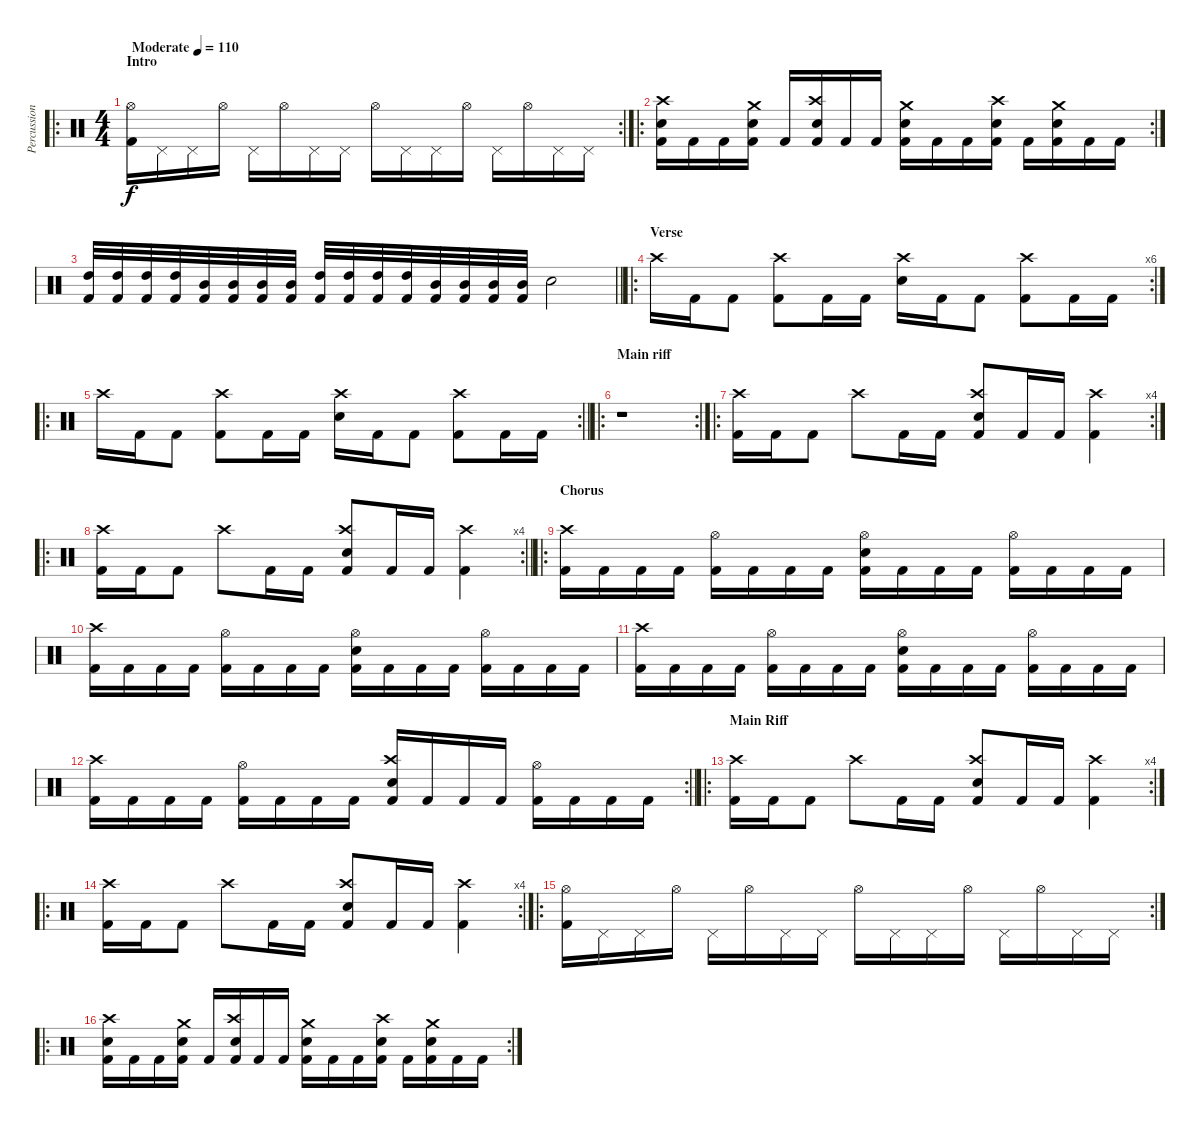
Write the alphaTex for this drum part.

\track ("Percussion" "Percussion") {instrument percussion}
\staff {score}
\articulation defaults
\ro
\rc 2
\ts (4 4)
\section ("" "Intro")
\tempo (110 "Moderate")
\clef neutral
\ks c
("Hi-Hat (open)" "Kick (hit) 2").16{dy f} "Pedal Hi-Hat (hit)".16 "Pedal Hi-Hat (hit)".16 "Hi-Hat (open)".16 "Pedal Hi-Hat (hit)".16 "Hi-Hat (open)".16 "Pedal Hi-Hat (hit)".16 "Pedal Hi-Hat (hit)".16 "Hi-Hat (open)".16 "Pedal Hi-Hat (hit)".16 "Pedal Hi-Hat (hit)".16 "Hi-Hat (open)".16 "Pedal Hi-Hat (hit)".16 "Hi-Hat (open)".16 "Pedal Hi-Hat (hit)".16 "Pedal Hi-Hat (hit)".16 |
\ro
\rc 2
("Crash high (hit)" "Electric Snare (hit)" "Kick (hit) 2").16 "Kick (hit) 2".16 "Kick (hit) 2".16 ("Crash medium (hit)" "Electric Snare (hit)" "Kick (hit) 2").16 "Kick (hit) 2".16 ("Crash high (hit)" "Electric Snare (hit)" "Kick (hit) 2").16 "Kick (hit) 2".16 "Kick (hit) 2".16 ("Crash medium (hit)" "Electric Snare (hit)" "Kick (hit) 2").16 "Kick (hit) 2".16 "Kick (hit) 2".16 ("Crash high (hit)" "Electric Snare (hit)" "Kick (hit) 2").16 "Kick (hit) 2".16 ("Crash medium (hit)" "Electric Snare (hit)" "Kick (hit) 2").16 "Kick (hit) 2".16 "Kick (hit) 2".16 |
\barLineRight lightlight
("High Tom (hit)" "Kick (hit) 2").32 ("High Tom (hit)" "Kick (hit) 2").32 ("High Tom (hit)" "Kick (hit) 2").32 ("High Tom (hit)" "Kick (hit) 2").32 ("Mid Tom (hit)" "Kick (hit) 2").32 ("Mid Tom (hit)" "Kick (hit) 2").32 ("Mid Tom (hit)" "Kick (hit) 2").32 ("Mid Tom (hit)" "Kick (hit) 2").32 ("High Tom (hit)" "Kick (hit) 2").32 ("High Tom (hit)" "Kick (hit) 2").32 ("High Tom (hit)" "Kick (hit) 2").32 ("High Tom (hit)" "Kick (hit) 2").32 ("Mid Tom (hit)" "Kick (hit) 2").32 ("Mid Tom (hit)" "Kick (hit) 2").32 ("Mid Tom (hit)" "Kick (hit) 2").32 ("Mid Tom (hit)" "Kick (hit) 2").32 "Electric Snare (hit)".2 |
\ro
\rc 6
\section ("" "Verse")
"Crash high (hit)".16 "Kick (hit) 2".16 "Kick (hit) 2".8 ("Crash high (hit)" "Kick (hit) 2").8 "Kick (hit) 2".16 "Kick (hit) 2".16 ("Crash high (hit)" "Electric Snare (hit)").16 "Kick (hit) 2".16 "Kick (hit) 2".8 ("Crash high (hit)" "Kick (hit) 2").8 "Kick (hit) 2".16 "Kick (hit) 2".16 |
\ro
\rc 2
\barLineRight lightlight "Crash high (hit)".16 "Kick (hit) 2".16 "Kick (hit) 2".8
("Crash high (hit)" "Kick (hit) 2").8 "Kick (hit) 2".16 "Kick (hit) 2".16 ("Crash high (hit)" "Electric Snare (hit)").16 "Kick (hit) 2".16 "Kick (hit) 2".8 ("Crash high (hit)" "Kick (hit) 2").8 "Kick (hit) 2".16 "Kick (hit) 2".16 |
\ro
\rc 2
\section ("" "Main riff")
r.1 |
\ro
\rc 4
("Crash high (hit)" "Kick (hit) 2").16 "Kick (hit) 2".16 "Kick (hit) 2".8 "Crash high (hit)".8 "Kick (hit) 2".16 "Kick (hit) 2".16 ("Crash high (hit)" "Electric Snare (hit)" "Kick (hit) 2").8 "Kick (hit) 2".16 "Kick (hit) 2".16 ("Crash high (hit)" "Kick (hit) 2").4 |
\ro
\rc 4
\barLineRight lightlight
("Crash high (hit)" "Kick (hit) 2").16 "Kick (hit) 2".16 "Kick (hit) 2".8 "Crash high (hit)".8 "Kick (hit) 2".16 "Kick (hit) 2".16 ("Crash high (hit)" "Electric Snare (hit)" "Kick (hit) 2").8 "Kick (hit) 2".16 "Kick (hit) 2".16 ("Crash high (hit)" "Kick (hit) 2").4 |
\ro
\section ("" "Chorus")
("Crash high (hit)" "Kick (hit) 2").16 "Kick (hit) 2".16 "Kick (hit) 2".16 "Kick (hit) 2".16 ("Hi-Hat (open)" "Kick (hit) 2").16 "Kick (hit) 2".16 "Kick (hit) 2".16 "Kick (hit) 2".16 ("Hi-Hat (open)" "Electric Snare (hit)" "Kick (hit) 2").16 "Kick (hit) 2".16 "Kick (hit) 2".16 "Kick (hit) 2".16 ("Hi-Hat (open)" "Kick (hit) 2").16 "Kick (hit) 2".16 "Kick (hit) 2".16 "Kick (hit) 2".16 |
("Crash high (hit)" "Kick (hit) 2").16 "Kick (hit) 2".16 "Kick (hit) 2".16 "Kick (hit) 2".16 ("Hi-Hat (open)" "Kick (hit) 2").16 "Kick (hit) 2".16 "Kick (hit) 2".16 "Kick (hit) 2".16 ("Hi-Hat (open)" "Electric Snare (hit)" "Kick (hit) 2").16 "Kick (hit) 2".16 "Kick (hit) 2".16 "Kick (hit) 2".16 ("Hi-Hat (open)" "Kick (hit) 2").16 "Kick (hit) 2".16 "Kick (hit) 2".16 "Kick (hit) 2".16 |
("Crash high (hit)" "Kick (hit) 2").16 "Kick (hit) 2".16 "Kick (hit) 2".16 "Kick (hit) 2".16 ("Hi-Hat (open)" "Kick (hit) 2").16 "Kick (hit) 2".16 "Kick (hit) 2".16 "Kick (hit) 2".16 ("Hi-Hat (open)" "Electric Snare (hit)" "Kick (hit) 2").16 "Kick (hit) 2".16 "Kick (hit) 2".16 "Kick (hit) 2".16 ("Hi-Hat (open)" "Kick (hit) 2").16 "Kick (hit) 2".16 "Kick (hit) 2".16 "Kick (hit) 2".16 |
\rc 2
\barLineRight lightlight
("Crash high (hit)" "Kick (hit) 2").16 "Kick (hit) 2".16 "Kick (hit) 2".16 "Kick (hit) 2".16 ("Hi-Hat (open)" "Kick (hit) 2").16 "Kick (hit) 2".16 "Kick (hit) 2".16 "Kick (hit) 2".16 ("Crash high (hit)" "Electric Snare (hit)" "Kick (hit) 2").16 "Kick (hit) 2".16 "Kick (hit) 2".16 "Kick (hit) 2".16 ("Hi-Hat (open)" "Kick (hit) 2").16 "Kick (hit) 2".16 "Kick (hit) 2".16 "Kick (hit) 2".16 |
\ro
\rc 4
\section ("" "Main Riff")
("Crash high (hit)" "Kick (hit) 2").16 "Kick (hit) 2".16 "Kick (hit) 2".8 "Crash high (hit)".8 "Kick (hit) 2".16 "Kick (hit) 2".16 ("Crash high (hit)" "Electric Snare (hit)" "Kick (hit) 2").8 "Kick (hit) 2".16 "Kick (hit) 2".16 ("Crash high (hit)" "Kick (hit) 2").4 |
\ro
\rc 4
("Crash high (hit)" "Kick (hit) 2").16 "Kick (hit) 2".16 "Kick (hit) 2".8 "Crash high (hit)".8 "Kick (hit) 2".16 "Kick (hit) 2".16 ("Crash high (hit)" "Electric Snare (hit)" "Kick (hit) 2").8 "Kick (hit) 2".16 "Kick (hit) 2".16 ("Crash high (hit)" "Kick (hit) 2").4 |
\ro
\rc 2
("Hi-Hat (open)" "Kick (hit) 2").16 "Pedal Hi-Hat (hit)".16 "Pedal Hi-Hat (hit)".16 "Hi-Hat (open)".16 "Pedal Hi-Hat (hit)".16 "Hi-Hat (open)".16 "Pedal Hi-Hat (hit)".16 "Pedal Hi-Hat (hit)".16 "Hi-Hat (open)".16 "Pedal Hi-Hat (hit)".16 "Pedal Hi-Hat (hit)".16 "Hi-Hat (open)".16 "Pedal Hi-Hat (hit)".16 "Hi-Hat (open)".16 "Pedal Hi-Hat (hit)".16 "Pedal Hi-Hat (hit)".16 |
\ro
\rc 2
("Crash high (hit)" "Electric Snare (hit)" "Kick (hit) 2").16 "Kick (hit) 2".16 "Kick (hit) 2".16 ("Crash medium (hit)" "Electric Snare (hit)" "Kick (hit) 2").16 "Kick (hit) 2".16 ("Crash high (hit)" "Electric Snare (hit)" "Kick (hit) 2").16 "Kick (hit) 2".16 "Kick (hit) 2".16 ("Crash medium (hit)" "Electric Snare (hit)" "Kick (hit) 2").16 "Kick (hit) 2".16 "Kick (hit) 2".16 ("Crash high (hit)" "Electric Snare (hit)" "Kick (hit) 2").16 "Kick (hit) 2".16 ("Crash medium (hit)" "Electric Snare (hit)" "Kick (hit) 2").16 "Kick (hit) 2".16 "Kick (hit) 2".16
